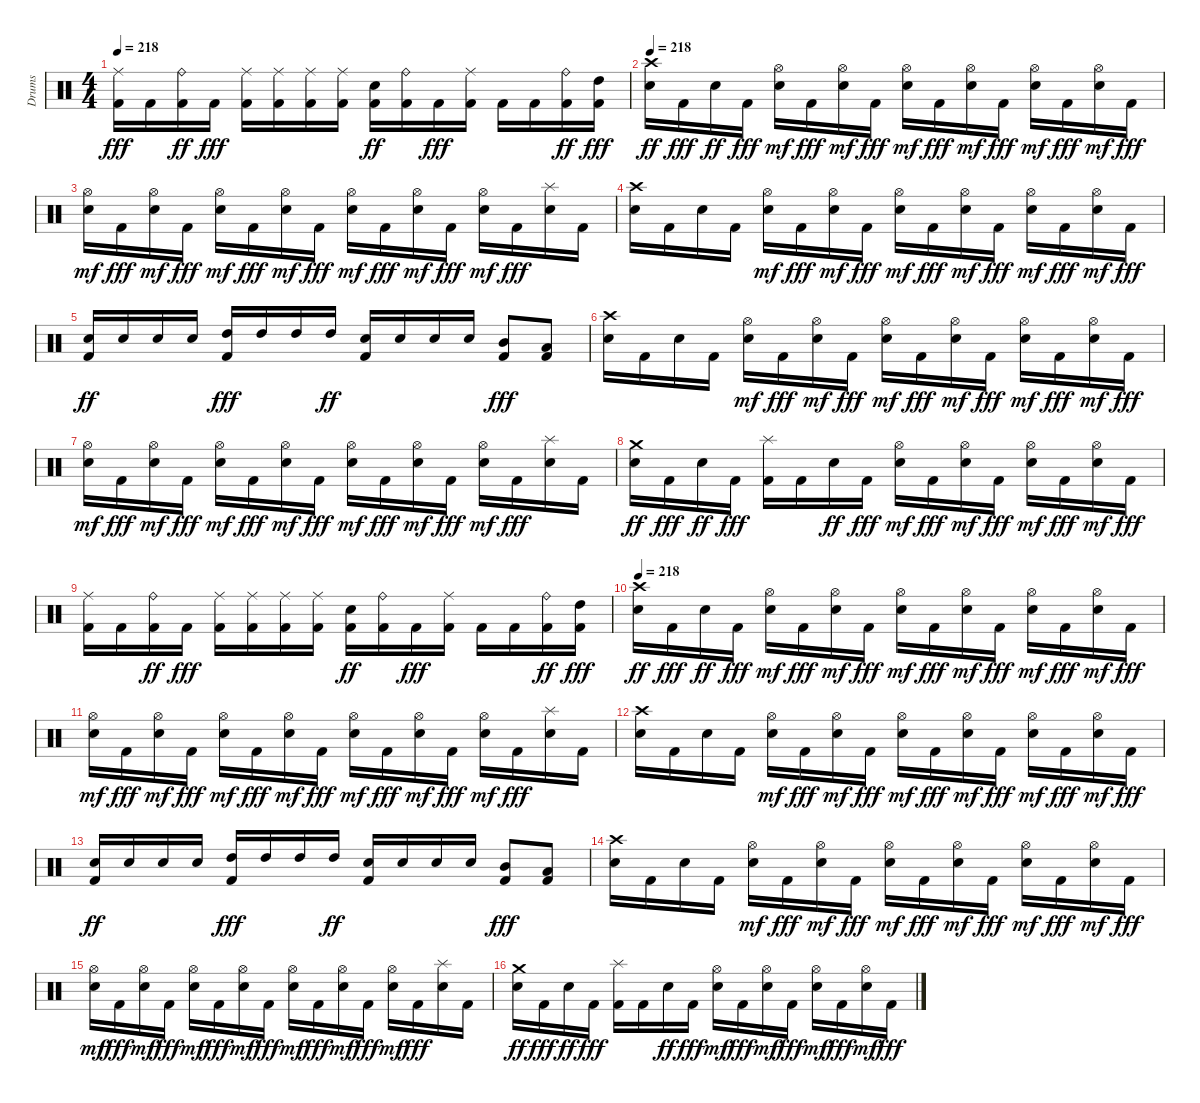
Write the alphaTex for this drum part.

\track ("Drums" "Drums") {instrument percussion}
\staff {score}
\articulation defaults
\ts (4 4)
\tempo 218
\clef neutral
\ks c
("Kick (hit) 2" "Ride (middle)").16{dy fff} "Kick (hit) 2".16 ("Kick (hit) 2" "Ride (bell)").16{dy ff} "Kick (hit) 2".16{dy fff} ("Kick (hit) 2" "Ride (middle)").16 ("Kick (hit) 2" "Ride (middle)").16 ("Kick (hit) 2" "Ride (middle)").16 ("Kick (hit) 2" "Ride (middle)").16 ("Kick (hit) 2" "Snare (hit) 2").16{dy ff} ("Kick (hit) 2" "Ride (bell)").16 "Kick (hit) 2".16{dy fff} ("Kick (hit) 2" "Ride (middle)").16 "Kick (hit) 2".16 "Kick (hit) 2".16 ("Kick (hit) 2" "Ride (bell)").16{dy ff} ("Kick (hit) 2" "High Tom (hit)").16{dy fff} |
\tempo 218
("Snare (hit) 2" "Crash high (hit)").16{dy ff} "Kick (hit) 2".16{dy fff} "Snare (hit) 2".16{dy ff} "Kick (hit) 2".16{dy fff} ("Snare (hit) 2" "Hi-Hat (open)").16{dy mf} "Kick (hit) 2".16{dy fff} ("Snare (hit) 2" "Hi-Hat (open)").16{dy mf} "Kick (hit) 2".16{dy fff} ("Snare (hit) 2" "Hi-Hat (open)").16{dy mf} "Kick (hit) 2".16{dy fff} ("Snare (hit) 2" "Hi-Hat (open)").16{dy mf} "Kick (hit) 2".16{dy fff} ("Snare (hit) 2" "Hi-Hat (open)").16{dy mf} "Kick (hit) 2".16{dy fff} ("Snare (hit) 2" "Hi-Hat (open)").16{dy mf} "Kick (hit) 2".16{dy fff} |
("Snare (hit) 2" "Hi-Hat (open)").16{dy mf} "Kick (hit) 2".16{dy fff} ("Snare (hit) 2" "Hi-Hat (open)").16{dy mf} "Kick (hit) 2".16{dy fff} ("Snare (hit) 2" "Hi-Hat (open)").16{dy mf} "Kick (hit) 2".16{dy fff} ("Snare (hit) 2" "Hi-Hat (open)").16{dy mf} "Kick (hit) 2".16{dy fff} ("Snare (hit) 2" "Hi-Hat (open)").16{dy mf} "Kick (hit) 2".16{dy fff} ("Snare (hit) 2" "Hi-Hat (open)").16{dy mf} "Kick (hit) 2".16{dy fff} ("Snare (hit) 2" "Hi-Hat (open)").16{dy mf} "Kick (hit) 2".16{dy fff} ("Snare (hit) 2" "Splash (hit)").16 "Kick (hit) 2".16 |
("Snare (hit) 2" "Crash high (hit)").16 "Kick (hit) 2".16 "Snare (hit) 2".16 "Kick (hit) 2".16 ("Snare (hit) 2" "Hi-Hat (open)").16{dy mf} "Kick (hit) 2".16{dy fff} ("Snare (hit) 2" "Hi-Hat (open)").16{dy mf} "Kick (hit) 2".16{dy fff} ("Snare (hit) 2" "Hi-Hat (open)").16{dy mf} "Kick (hit) 2".16{dy fff} ("Snare (hit) 2" "Hi-Hat (open)").16{dy mf} "Kick (hit) 2".16{dy fff} ("Snare (hit) 2" "Hi-Hat (open)").16{dy mf} "Kick (hit) 2".16{dy fff} ("Snare (hit) 2" "Hi-Hat (open)").16{dy mf} "Kick (hit) 2".16{dy fff} |
("Kick (hit) 2" "Snare (hit) 2").16{dy ff} "Snare (hit) 2".16 "Snare (hit) 2".16 "Snare (hit) 2".16 ("Kick (hit) 2" "High Tom (hit)").16{dy fff} "High Tom (hit)".16 "High Tom (hit)".16 "High Tom (hit)".16{dy ff} ("Kick (hit) 2" "Snare (hit) 2").16 "Snare (hit) 2".16 "Snare (hit) 2".16 "Snare (hit) 2".16 ("Kick (hit) 2" "Mid Tom (hit)").8{dy fff} ("Kick (hit) 2" "Low Tom (hit)").8 |
("Snare (hit) 2" "Crash high (hit)").16 "Kick (hit) 2".16 "Snare (hit) 2".16 "Kick (hit) 2".16 ("Snare (hit) 2" "Hi-Hat (open)").16{dy mf} "Kick (hit) 2".16{dy fff} ("Snare (hit) 2" "Hi-Hat (open)").16{dy mf} "Kick (hit) 2".16{dy fff} ("Snare (hit) 2" "Hi-Hat (open)").16{dy mf} "Kick (hit) 2".16{dy fff} ("Snare (hit) 2" "Hi-Hat (open)").16{dy mf} "Kick (hit) 2".16{dy fff} ("Snare (hit) 2" "Hi-Hat (open)").16{dy mf} "Kick (hit) 2".16{dy fff} ("Snare (hit) 2" "Hi-Hat (open)").16{dy mf} "Kick (hit) 2".16{dy fff} |
("Snare (hit) 2" "Hi-Hat (open)").16{dy mf} "Kick (hit) 2".16{dy fff} ("Snare (hit) 2" "Hi-Hat (open)").16{dy mf} "Kick (hit) 2".16{dy fff} ("Snare (hit) 2" "Hi-Hat (open)").16{dy mf} "Kick (hit) 2".16{dy fff} ("Snare (hit) 2" "Hi-Hat (open)").16{dy mf} "Kick (hit) 2".16{dy fff} ("Snare (hit) 2" "Hi-Hat (open)").16{dy mf} "Kick (hit) 2".16{dy fff} ("Snare (hit) 2" "Hi-Hat (open)").16{dy mf} "Kick (hit) 2".16{dy fff} ("Snare (hit) 2" "Hi-Hat (open)").16{dy mf} "Kick (hit) 2".16{dy fff} ("Snare (hit) 2" "Splash (hit)").16 "Kick (hit) 2".16 |
("Snare (hit) 2" "Crash medium (hit)").16{dy ff} "Kick (hit) 2".16{dy fff} "Snare (hit) 2".16{dy ff} "Kick (hit) 2".16{dy fff} ("Kick (hit) 2" "Splash (hit)").16 "Kick (hit) 2".16 "Snare (hit) 2".16{dy ff} "Kick (hit) 2".16{dy fff} ("Snare (hit) 2" "Hi-Hat (open)").16{dy mf} "Kick (hit) 2".16{dy fff} ("Snare (hit) 2" "Hi-Hat (open)").16{dy mf} "Kick (hit) 2".16{dy fff} ("Snare (hit) 2" "Hi-Hat (open)").16{dy mf} "Kick (hit) 2".16{dy fff} ("Snare (hit) 2" "Hi-Hat (open)").16{dy mf} "Kick (hit) 2".16{dy fff} |
("Kick (hit) 2" "Ride (middle)").16 "Kick (hit) 2".16 ("Kick (hit) 2" "Ride (bell)").16{dy ff} "Kick (hit) 2".16{dy fff} ("Kick (hit) 2" "Ride (middle)").16 ("Kick (hit) 2" "Ride (middle)").16 ("Kick (hit) 2" "Ride (middle)").16 ("Kick (hit) 2" "Ride (middle)").16 ("Kick (hit) 2" "Snare (hit) 2").16{dy ff} ("Kick (hit) 2" "Ride (bell)").16 "Kick (hit) 2".16{dy fff} ("Kick (hit) 2" "Ride (middle)").16 "Kick (hit) 2".16 "Kick (hit) 2".16 ("Kick (hit) 2" "Ride (bell)").16{dy ff} ("Kick (hit) 2" "High Tom (hit)").16{dy fff} |
\tempo 218
("Snare (hit) 2" "Crash high (hit)").16{dy ff} "Kick (hit) 2".16{dy fff} "Snare (hit) 2".16{dy ff} "Kick (hit) 2".16{dy fff} ("Snare (hit) 2" "Hi-Hat (open)").16{dy mf} "Kick (hit) 2".16{dy fff} ("Snare (hit) 2" "Hi-Hat (open)").16{dy mf} "Kick (hit) 2".16{dy fff} ("Snare (hit) 2" "Hi-Hat (open)").16{dy mf} "Kick (hit) 2".16{dy fff} ("Snare (hit) 2" "Hi-Hat (open)").16{dy mf} "Kick (hit) 2".16{dy fff} ("Snare (hit) 2" "Hi-Hat (open)").16{dy mf} "Kick (hit) 2".16{dy fff} ("Snare (hit) 2" "Hi-Hat (open)").16{dy mf} "Kick (hit) 2".16{dy fff} |
("Snare (hit) 2" "Hi-Hat (open)").16{dy mf} "Kick (hit) 2".16{dy fff} ("Snare (hit) 2" "Hi-Hat (open)").16{dy mf} "Kick (hit) 2".16{dy fff} ("Snare (hit) 2" "Hi-Hat (open)").16{dy mf} "Kick (hit) 2".16{dy fff} ("Snare (hit) 2" "Hi-Hat (open)").16{dy mf} "Kick (hit) 2".16{dy fff} ("Snare (hit) 2" "Hi-Hat (open)").16{dy mf} "Kick (hit) 2".16{dy fff} ("Snare (hit) 2" "Hi-Hat (open)").16{dy mf} "Kick (hit) 2".16{dy fff} ("Snare (hit) 2" "Hi-Hat (open)").16{dy mf} "Kick (hit) 2".16{dy fff} ("Snare (hit) 2" "Splash (hit)").16 "Kick (hit) 2".16 |
("Snare (hit) 2" "Crash high (hit)").16 "Kick (hit) 2".16 "Snare (hit) 2".16 "Kick (hit) 2".16 ("Snare (hit) 2" "Hi-Hat (open)").16{dy mf} "Kick (hit) 2".16{dy fff} ("Snare (hit) 2" "Hi-Hat (open)").16{dy mf} "Kick (hit) 2".16{dy fff} ("Snare (hit) 2" "Hi-Hat (open)").16{dy mf} "Kick (hit) 2".16{dy fff} ("Snare (hit) 2" "Hi-Hat (open)").16{dy mf} "Kick (hit) 2".16{dy fff} ("Snare (hit) 2" "Hi-Hat (open)").16{dy mf} "Kick (hit) 2".16{dy fff} ("Snare (hit) 2" "Hi-Hat (open)").16{dy mf} "Kick (hit) 2".16{dy fff} |
("Kick (hit) 2" "Snare (hit) 2").16{dy ff} "Snare (hit) 2".16 "Snare (hit) 2".16 "Snare (hit) 2".16 ("Kick (hit) 2" "High Tom (hit)").16{dy fff} "High Tom (hit)".16 "High Tom (hit)".16 "High Tom (hit)".16{dy ff} ("Kick (hit) 2" "Snare (hit) 2").16 "Snare (hit) 2".16 "Snare (hit) 2".16 "Snare (hit) 2".16 ("Kick (hit) 2" "Mid Tom (hit)").8{dy fff} ("Kick (hit) 2" "Low Tom (hit)").8 |
("Snare (hit) 2" "Crash high (hit)").16 "Kick (hit) 2".16 "Snare (hit) 2".16 "Kick (hit) 2".16 ("Snare (hit) 2" "Hi-Hat (open)").16{dy mf} "Kick (hit) 2".16{dy fff} ("Snare (hit) 2" "Hi-Hat (open)").16{dy mf} "Kick (hit) 2".16{dy fff} ("Snare (hit) 2" "Hi-Hat (open)").16{dy mf} "Kick (hit) 2".16{dy fff} ("Snare (hit) 2" "Hi-Hat (open)").16{dy mf} "Kick (hit) 2".16{dy fff} ("Snare (hit) 2" "Hi-Hat (open)").16{dy mf} "Kick (hit) 2".16{dy fff} ("Snare (hit) 2" "Hi-Hat (open)").16{dy mf} "Kick (hit) 2".16{dy fff} |
("Snare (hit) 2" "Hi-Hat (open)").16{dy mf} "Kick (hit) 2".16{dy fff} ("Snare (hit) 2" "Hi-Hat (open)").16{dy mf} "Kick (hit) 2".16{dy fff} ("Snare (hit) 2" "Hi-Hat (open)").16{dy mf} "Kick (hit) 2".16{dy fff} ("Snare (hit) 2" "Hi-Hat (open)").16{dy mf} "Kick (hit) 2".16{dy fff} ("Snare (hit) 2" "Hi-Hat (open)").16{dy mf} "Kick (hit) 2".16{dy fff} ("Snare (hit) 2" "Hi-Hat (open)").16{dy mf} "Kick (hit) 2".16{dy fff} ("Snare (hit) 2" "Hi-Hat (open)").16{dy mf} "Kick (hit) 2".16{dy fff} ("Snare (hit) 2" "Splash (hit)").16 "Kick (hit) 2".16 |
("Snare (hit) 2" "Crash medium (hit)").16{dy ff} "Kick (hit) 2".16{dy fff} "Snare (hit) 2".16{dy ff} "Kick (hit) 2".16{dy fff} ("Kick (hit) 2" "Splash (hit)").16 "Kick (hit) 2".16 "Snare (hit) 2".16{dy ff} "Kick (hit) 2".16{dy fff} ("Snare (hit) 2" "Hi-Hat (open)").16{dy mf} "Kick (hit) 2".16{dy fff} ("Snare (hit) 2" "Hi-Hat (open)").16{dy mf} "Kick (hit) 2".16{dy fff} ("Snare (hit) 2" "Hi-Hat (open)").16{dy mf} "Kick (hit) 2".16{dy fff} ("Snare (hit) 2" "Hi-Hat (open)").16{dy mf} "Kick (hit) 2".16{dy fff}
